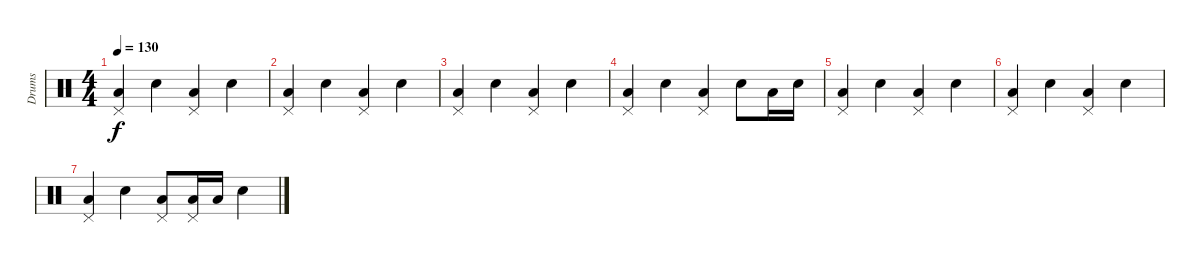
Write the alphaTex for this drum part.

\track ("Drums" "Drums") {instrument percussion}
\staff {score}
\articulation defaults
\ts (4 4)
\tempo 130
\clef neutral
\ks c
("Low Tom (hit)" "Pedal Hi-Hat (hit)").4{dy f} "Snare (hit) 2".4 ("Low Tom (hit)" "Pedal Hi-Hat (hit)").4 "Snare (hit) 2".4 |
("Low Tom (hit)" "Pedal Hi-Hat (hit)").4 "Snare (hit) 2".4 ("Low Tom (hit)" "Pedal Hi-Hat (hit)").4 "Snare (hit) 2".4 |
("Low Tom (hit)" "Pedal Hi-Hat (hit)").4 "Snare (hit) 2".4 ("Low Tom (hit)" "Pedal Hi-Hat (hit)").4 "Snare (hit) 2".4 |
("Low Tom (hit)" "Pedal Hi-Hat (hit)").4 "Snare (hit) 2".4 ("Low Tom (hit)" "Pedal Hi-Hat (hit)").4 "Snare (hit) 2".8 "Low Tom (hit)".16 "Snare (hit) 2".16 |
("Low Tom (hit)" "Pedal Hi-Hat (hit)").4 "Snare (hit) 2".4 ("Low Tom (hit)" "Pedal Hi-Hat (hit)").4 "Snare (hit) 2".4 |
("Low Tom (hit)" "Pedal Hi-Hat (hit)").4 "Snare (hit) 2".4 ("Low Tom (hit)" "Pedal Hi-Hat (hit)").4 "Snare (hit) 2".4 |
("Low Tom (hit)" "Pedal Hi-Hat (hit)").4 "Snare (hit) 2".4 ("Low Tom (hit)" "Pedal Hi-Hat (hit)").8 ("Low Tom (hit)" "Pedal Hi-Hat (hit)").16 "Low Tom (hit)".16 "Snare (hit) 2".4
